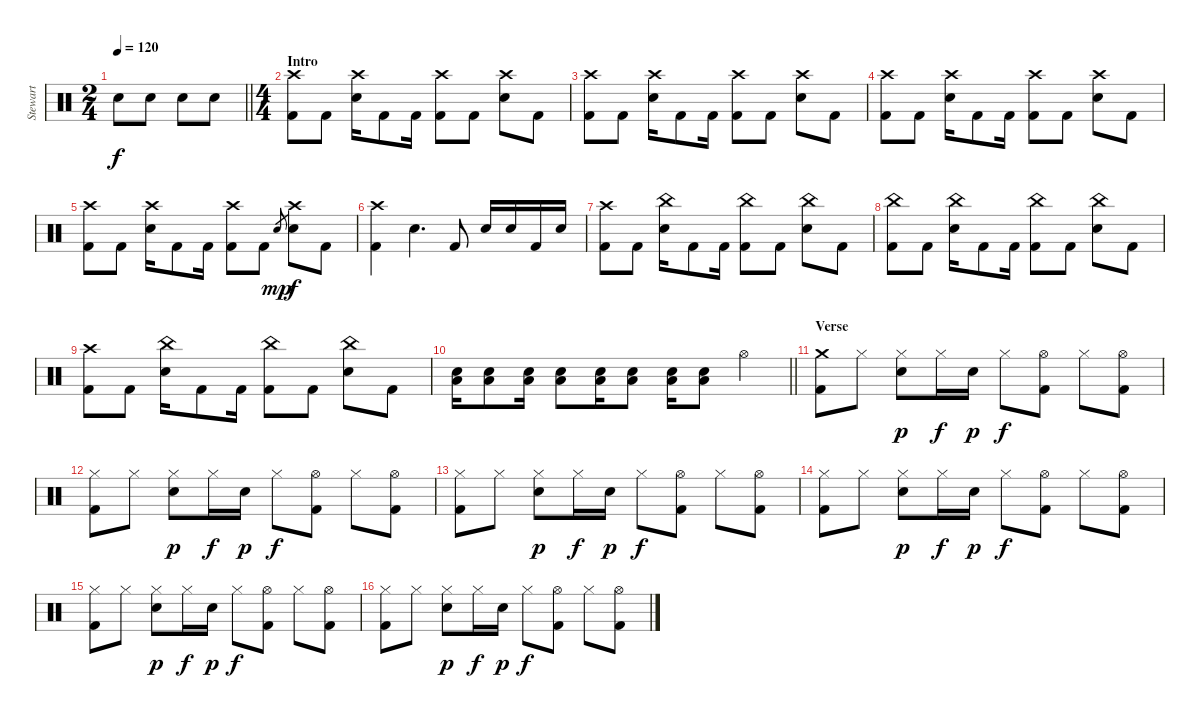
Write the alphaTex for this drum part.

\track ("Stewart" "Stewart") {instrument percussion}
\staff {score}
\articulation defaults
\ts (2 4)
\tempo 120
\clef neutral
\barLineRight lightlight
\ks c "Electric Snare (hit)".8{dy f} "Electric Snare (hit)".8 "Electric Snare (hit)".8 "Electric Snare (hit)".8
|
\ts (4 4)
\section ("" "Intro")
("Kick (hit) 2" "Crash high (hit)").8 "Kick (hit) 2".8 ("Electric Snare (hit)" "Crash high (hit)").16 "Kick (hit) 2".8 "Kick (hit) 2".16 ("Kick (hit) 2" "Crash high (hit)").8 "Kick (hit) 2".8 ("Electric Snare (hit)" "Crash high (hit)").8 "Kick (hit) 2".8 |
("Kick (hit) 2" "Crash high (hit)").8 "Kick (hit) 2".8 ("Electric Snare (hit)" "Crash high (hit)").16 "Kick (hit) 2".8 "Kick (hit) 2".16 ("Kick (hit) 2" "Crash high (hit)").8 "Kick (hit) 2".8 ("Electric Snare (hit)" "Crash high (hit)").8 "Kick (hit) 2".8 |
("Kick (hit) 2" "Crash high (hit)").8 "Kick (hit) 2".8 ("Electric Snare (hit)" "Crash high (hit)").16 "Kick (hit) 2".8 "Kick (hit) 2".16 ("Kick (hit) 2" "Crash high (hit)").8 "Kick (hit) 2".8 ("Electric Snare (hit)" "Crash high (hit)").8 "Kick (hit) 2".8 |
("Kick (hit) 2" "Crash high (hit)").8 "Kick (hit) 2".8 ("Electric Snare (hit)" "Crash high (hit)").16 "Kick (hit) 2".8 "Kick (hit) 2".16 ("Kick (hit) 2" "Crash high (hit)").8 "Kick (hit) 2".8 "Snare (hit) 2".8{gr dy mp} ("Electric Snare (hit)" "Crash high (hit)").8{dy f} "Kick (hit) 2".8 |
("Kick (hit) 2" "Crash high (hit)").4 "Electric Snare (hit)".4{d} "Kick (hit) 2".8 "Electric Snare (hit)".16 "Electric Snare (hit)".16 "Kick (hit) 2".16 "Electric Snare (hit)".16 |
("Kick (hit) 2" "Crash high (hit)").8 "Kick (hit) 2".8 ("Electric Snare (hit)" "China (hit)").16 "Kick (hit) 2".8 "Kick (hit) 2".16 ("Kick (hit) 2" "China (hit)").8 "Kick (hit) 2".8 ("Electric Snare (hit)" "China (hit)").8 "Kick (hit) 2".8 |
("Kick (hit) 2" "China (hit)").8 "Kick (hit) 2".8 ("Electric Snare (hit)" "China (hit)").16 "Kick (hit) 2".8 "Kick (hit) 2".16 ("Kick (hit) 2" "China (hit)").8 "Kick (hit) 2".8 ("Electric Snare (hit)" "China (hit)").8 "Kick (hit) 2".8 |
("Kick (hit) 2" "Crash high (hit)").8 "Kick (hit) 2".8 ("Electric Snare (hit)" "China (hit)").16 "Kick (hit) 2".8 "Kick (hit) 2".16 ("Kick (hit) 2" "China (hit)").8 "Kick (hit) 2".8 ("Electric Snare (hit)" "China (hit)").8 "Kick (hit) 2".8 |
\barLineRight lightlight
("Electric Snare (hit)" "Low Tom (hit)").16 ("Electric Snare (hit)" "Low Tom (hit)").8 ("Electric Snare (hit)" "Low Tom (hit)").16 ("Electric Snare (hit)" "Low Tom (hit)").8 ("Electric Snare (hit)" "Low Tom (hit)").16 ("Electric Snare (hit)" "Low Tom (hit)").8 ("Electric Snare (hit)" "Low Tom (hit)").16 ("Electric Snare (hit)" "Low Tom (hit)").8 "Hi-Hat (open)".4 |
\section ("" "Verse")
("Crash medium (hit)" "Kick (hit) 2").8 "Hi-Hat (closed)".8 ("Hi-Hat (closed)" "Electric Snare (hit)").8{dy p} "Hi-Hat (closed)".16{dy f} "Electric Snare (hit)".16{dy p} "Hi-Hat (closed)".8{dy f} ("Hi-Hat (open)" "Kick (hit) 2").8 "Hi-Hat (closed)".8 ("Hi-Hat (open)" "Kick (hit) 2").8 |
("Hi-Hat (closed)" "Kick (hit) 2").8 "Hi-Hat (closed)".8 ("Hi-Hat (closed)" "Electric Snare (hit)").8{dy p} "Hi-Hat (closed)".16{dy f} "Electric Snare (hit)".16{dy p} "Hi-Hat (closed)".8{dy f} ("Hi-Hat (open)" "Kick (hit) 2").8 "Hi-Hat (closed)".8 ("Hi-Hat (open)" "Kick (hit) 2").8 |
("Hi-Hat (closed)" "Kick (hit) 2").8 "Hi-Hat (closed)".8 ("Hi-Hat (closed)" "Electric Snare (hit)").8{dy p} "Hi-Hat (closed)".16{dy f} "Electric Snare (hit)".16{dy p} "Hi-Hat (closed)".8{dy f} ("Hi-Hat (open)" "Kick (hit) 2").8 "Hi-Hat (closed)".8 ("Hi-Hat (open)" "Kick (hit) 2").8 |
("Hi-Hat (closed)" "Kick (hit) 2").8 "Hi-Hat (closed)".8 ("Hi-Hat (closed)" "Electric Snare (hit)").8{dy p} "Hi-Hat (closed)".16{dy f} "Electric Snare (hit)".16{dy p} "Hi-Hat (closed)".8{dy f} ("Hi-Hat (open)" "Kick (hit) 2").8 "Hi-Hat (closed)".8 ("Hi-Hat (open)" "Kick (hit) 2").8 |
("Hi-Hat (closed)" "Kick (hit) 2").8 "Hi-Hat (closed)".8 ("Hi-Hat (closed)" "Electric Snare (hit)").8{dy p} "Hi-Hat (closed)".16{dy f} "Electric Snare (hit)".16{dy p} "Hi-Hat (closed)".8{dy f} ("Hi-Hat (open)" "Kick (hit) 2").8 "Hi-Hat (closed)".8 ("Hi-Hat (open)" "Kick (hit) 2").8 |
("Hi-Hat (closed)" "Kick (hit) 2").8 "Hi-Hat (closed)".8 ("Hi-Hat (closed)" "Electric Snare (hit)").8{dy p} "Hi-Hat (closed)".16{dy f} "Electric Snare (hit)".16{dy p} "Hi-Hat (closed)".8{dy f} ("Hi-Hat (open)" "Kick (hit) 2").8 "Hi-Hat (closed)".8 ("Hi-Hat (open)" "Kick (hit) 2").8
